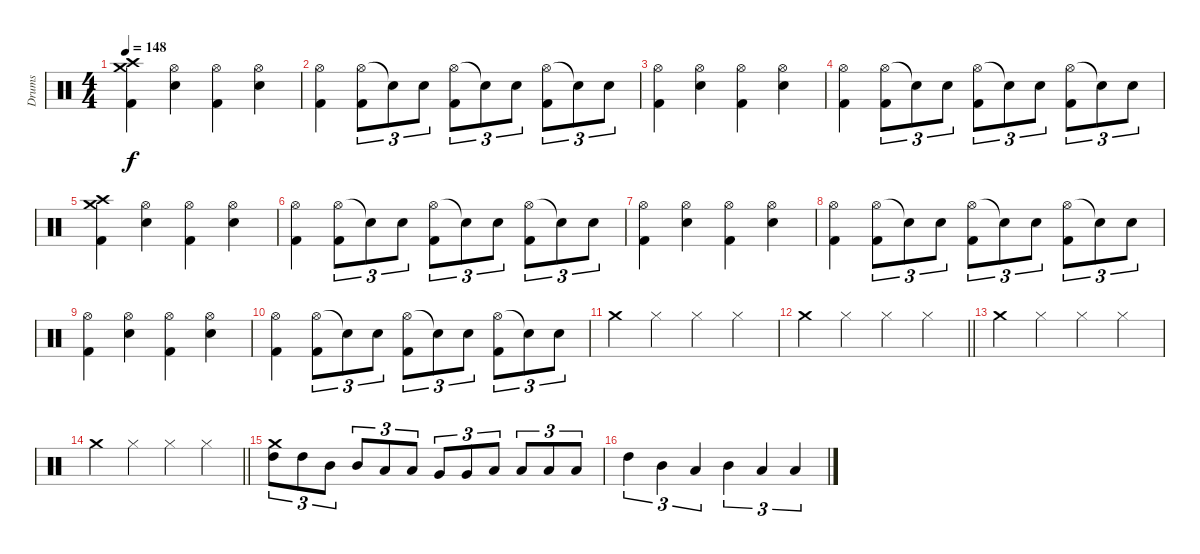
\track ("Drums" "Drums") {instrument percussion}
\staff {score}
\articulation defaults
\ts (4 4)
\tempo 148
\clef neutral
\ks c
("Crash high (hit)" "Crash medium (hit)" "Kick (hit) 2").4{dy f} ("Hi-Hat (open)" "Snare (hit) 2").4 ("Hi-Hat (open)" "Kick (hit) 2").4 ("Hi-Hat (open)" "Snare (hit) 2").4 |
("Hi-Hat (open)" "Kick (hit) 2").4 ("Hi-Hat (open)" "Kick (hit) 2").8{tu (3 2)} "Snare (hit)"{t}.8{tu (3 2)} "Snare (hit) 2".8{tu (3 2)} ("Hi-Hat (open)" "Kick (hit) 2").8{tu (3 2)} "Snare (hit)"{t}.8{tu (3 2)} "Snare (hit) 2".8{tu (3 2)} ("Hi-Hat (open)" "Kick (hit) 2").8{tu (3 2)} "Snare (hit) 2"{t}.8{tu (3 2)} "Snare (hit) 2".8{tu (3 2)} |
("Hi-Hat (open)" "Kick (hit) 2").4 ("Hi-Hat (open)" "Snare (hit) 2").4 ("Hi-Hat (open)" "Kick (hit) 2").4 ("Hi-Hat (open)" "Snare (hit) 2").4 |
("Hi-Hat (open)" "Kick (hit) 2").4 ("Hi-Hat (open)" "Kick (hit) 2").8{tu (3 2)} "Snare (hit)"{t}.8{tu (3 2)} "Snare (hit) 2".8{tu (3 2)} ("Hi-Hat (open)" "Kick (hit) 2").8{tu (3 2)} "Snare (hit)"{t}.8{tu (3 2)} "Snare (hit) 2".8{tu (3 2)} ("Hi-Hat (open)" "Kick (hit) 2").8{tu (3 2)} "Snare (hit) 2"{t}.8{tu (3 2)} "Snare (hit) 2".8{tu (3 2)} |
("Crash high (hit)" "Crash medium (hit)" "Kick (hit) 2").4 ("Hi-Hat (open)" "Snare (hit) 2").4 ("Hi-Hat (open)" "Kick (hit) 2").4 ("Hi-Hat (open)" "Snare (hit) 2").4 |
("Hi-Hat (open)" "Kick (hit) 2").4 ("Hi-Hat (open)" "Kick (hit) 2").8{tu (3 2)} "Snare (hit)"{t}.8{tu (3 2)} "Snare (hit) 2".8{tu (3 2)} ("Hi-Hat (open)" "Kick (hit) 2").8{tu (3 2)} "Snare (hit)"{t}.8{tu (3 2)} "Snare (hit) 2".8{tu (3 2)} ("Hi-Hat (open)" "Kick (hit) 2").8{tu (3 2)} "Snare (hit) 2"{t}.8{tu (3 2)} "Snare (hit) 2".8{tu (3 2)} |
("Hi-Hat (open)" "Kick (hit) 2").4 ("Hi-Hat (open)" "Snare (hit) 2").4 ("Hi-Hat (open)" "Kick (hit) 2").4 ("Hi-Hat (open)" "Snare (hit) 2").4 |
("Hi-Hat (open)" "Kick (hit) 2").4 ("Hi-Hat (open)" "Kick (hit) 2").8{tu (3 2)} "Snare (hit)"{t}.8{tu (3 2)} "Snare (hit) 2".8{tu (3 2)} ("Hi-Hat (open)" "Kick (hit) 2").8{tu (3 2)} "Snare (hit)"{t}.8{tu (3 2)} "Snare (hit) 2".8{tu (3 2)} ("Hi-Hat (open)" "Kick (hit) 2").8{tu (3 2)} "Snare (hit) 2"{t}.8{tu (3 2)} "Snare (hit) 2".8{tu (3 2)} |
("Hi-Hat (open)" "Kick (hit) 2").4 ("Hi-Hat (open)" "Snare (hit) 2").4 ("Hi-Hat (open)" "Kick (hit) 2").4 ("Hi-Hat (open)" "Snare (hit) 2").4 |
("Hi-Hat (open)" "Kick (hit) 2").4 ("Hi-Hat (open)" "Kick (hit) 2").8{tu (3 2)} "Snare (hit)"{t}.8{tu (3 2)} "Snare (hit) 2".8{tu (3 2)} ("Hi-Hat (open)" "Kick (hit) 2").8{tu (3 2)} "Snare (hit)"{t}.8{tu (3 2)} "Snare (hit) 2".8{tu (3 2)} ("Hi-Hat (open)" "Kick (hit) 2").8{tu (3 2)} "Snare (hit) 2"{t}.8{tu (3 2)} "Snare (hit) 2".8{tu (3 2)} |
"Crash medium (hit)".4 "Hi-Hat (closed)".4 "Hi-Hat (closed)".4 "Hi-Hat (closed)".4 |
\barLineRight lightlight "Crash medium (hit)".4 "Hi-Hat (closed)".4 "Hi-Hat (closed)".4 "Hi-Hat (closed)".4
|
"Crash medium (hit)".4 "Hi-Hat (closed)".4 "Hi-Hat (closed)".4 "Hi-Hat (closed)".4 |
\barLineRight lightlight "Crash medium (hit)".4 "Hi-Hat (closed)".4 "Hi-Hat (closed)".4 "Hi-Hat (closed)".4
|
("Crash medium (hit)" "High Tom (hit)").8{tu (3 2)} "High Tom (hit)".8{tu (3 2)} "Mid Tom (hit)".8{tu (3 2)} "Mid Tom (hit)".8{tu (3 2)} "Low Tom (hit)".8{tu (3 2)} "Low Tom (hit)".8{tu (3 2)} "Very Low Tom (hit)".8{tu (3 2)} "Very Low Tom (hit)".8{tu (3 2)} "Low Floor Tom (hit)".8{tu (3 2)} "Low Floor Tom (hit)".8{tu (3 2)} "Low Floor Tom (hit)".8{tu (3 2)} "Low Floor Tom (hit)".8{tu (3 2)} |
"High Tom (hit)".4{tu (3 2)} "Mid Tom (hit)".4{tu (3 2)} "Low Tom (hit)".4{tu (3 2)} "Mid Tom (hit)".4{tu (3 2)} "Low Tom (hit)".4{tu (3 2)} "Low Floor Tom (hit)".4{tu (3 2)}
